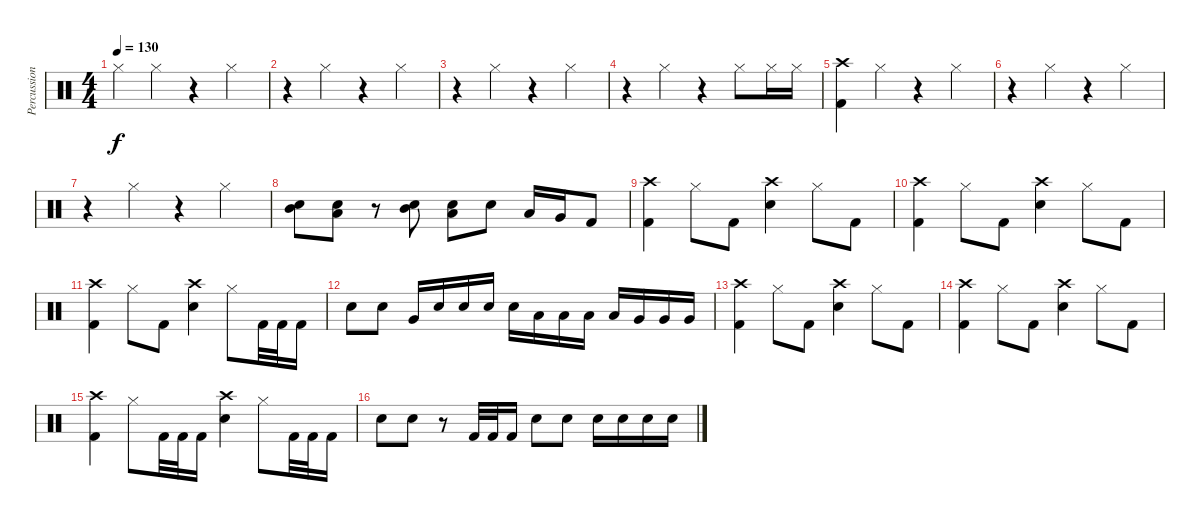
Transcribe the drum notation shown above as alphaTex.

\track ("Percussion" "Percussion") {instrument percussion}
\staff {score}
\articulation defaults
\ts (4 4)
\tempo 130
\clef neutral
\ks c "Hi-Hat (closed)".4{dy f} "Hi-Hat (closed)".4
r.4 "Hi-Hat (closed)".4 |
r.4 "Hi-Hat (closed)".4 r.4 "Hi-Hat (closed)".4 |
r.4 "Hi-Hat (closed)".4 r.4 "Hi-Hat (closed)".4 |
r.4 "Hi-Hat (closed)".4 r.4 "Hi-Hat (closed)".8 "Hi-Hat (closed)".16 "Hi-Hat (closed)".16 |
("Crash high (hit)" "Kick (hit) 2").4 "Hi-Hat (closed)".4 r.4 "Hi-Hat (closed)".4 |
r.4 "Hi-Hat (closed)".4 r.4 "Hi-Hat (closed)".4 |
r.4 "Hi-Hat (closed)".4 r.4 "Hi-Hat (closed)".4 |
("Mid Tom (hit)" "Electric Snare (hit)").8 ("Low Tom (hit)" "Electric Snare (hit)").8 r.8 ("Mid Tom (hit)" "Electric Snare (hit)").8 ("Low Tom (hit)" "Electric Snare (hit)").8 "Electric Snare (hit)".8 "Low Tom (hit)".16 "Very Low Tom (hit)".16 "Kick (hit) 2".8 |
("Crash high (hit)" "Kick (hit) 2").4 "Hi-Hat (closed)".8 "Kick (hit) 2".8 ("Crash high (hit)" "Electric Snare (hit)").4 "Hi-Hat (closed)".8 "Kick (hit) 2".8 |
("Crash high (hit)" "Kick (hit) 2").4 "Hi-Hat (closed)".8 "Kick (hit) 2".8 ("Crash high (hit)" "Electric Snare (hit)").4 "Hi-Hat (closed)".8 "Kick (hit) 2".8 |
("Crash high (hit)" "Kick (hit) 2").4 "Hi-Hat (closed)".8 "Kick (hit) 2".8 ("Crash high (hit)" "Electric Snare (hit)").4 "Hi-Hat (closed)".8 "Kick (hit) 2".32 "Kick (hit) 2".32 "Kick (hit) 2".16 |
"Electric Snare (hit)".8 "Electric Snare (hit)".8 "Very Low Tom (hit)".16 "Electric Snare (hit)".16 "Electric Snare (hit)".16 "Electric Snare (hit)".16 "Electric Snare (hit)".16 "Low Tom (hit)".16 "Low Tom (hit)".16 "Low Tom (hit)".16 "Low Tom (hit)".16 "Very Low Tom (hit)".16 "Very Low Tom (hit)".16 "Very Low Tom (hit)".16 |
("Crash high (hit)" "Kick (hit) 2").4 "Hi-Hat (closed)".8 "Kick (hit) 2".8 ("Crash high (hit)" "Electric Snare (hit)").4 "Hi-Hat (closed)".8 "Kick (hit) 2".8 |
("Crash high (hit)" "Kick (hit) 2").4 "Hi-Hat (closed)".8 "Kick (hit) 2".8 ("Crash high (hit)" "Electric Snare (hit)").4 "Hi-Hat (closed)".8 "Kick (hit) 2".8 |
("Crash high (hit)" "Kick (hit) 2").4 "Hi-Hat (closed)".8 "Kick (hit) 2".32 "Kick (hit) 2".32 "Kick (hit) 2".16 ("Crash high (hit)" "Electric Snare (hit)").4 "Hi-Hat (closed)".8 "Kick (hit) 2".32 "Kick (hit) 2".32 "Kick (hit) 2".16 |
"Electric Snare (hit)".8 "Electric Snare (hit)".8 r.8 "Kick (hit) 2".32 "Kick (hit) 2".32 "Kick (hit) 2".16 "Electric Snare (hit)".8 "Electric Snare (hit)".8 "Electric Snare (hit)".16 "Electric Snare (hit)".16 "Electric Snare (hit)".16 "Electric Snare (hit)".16
